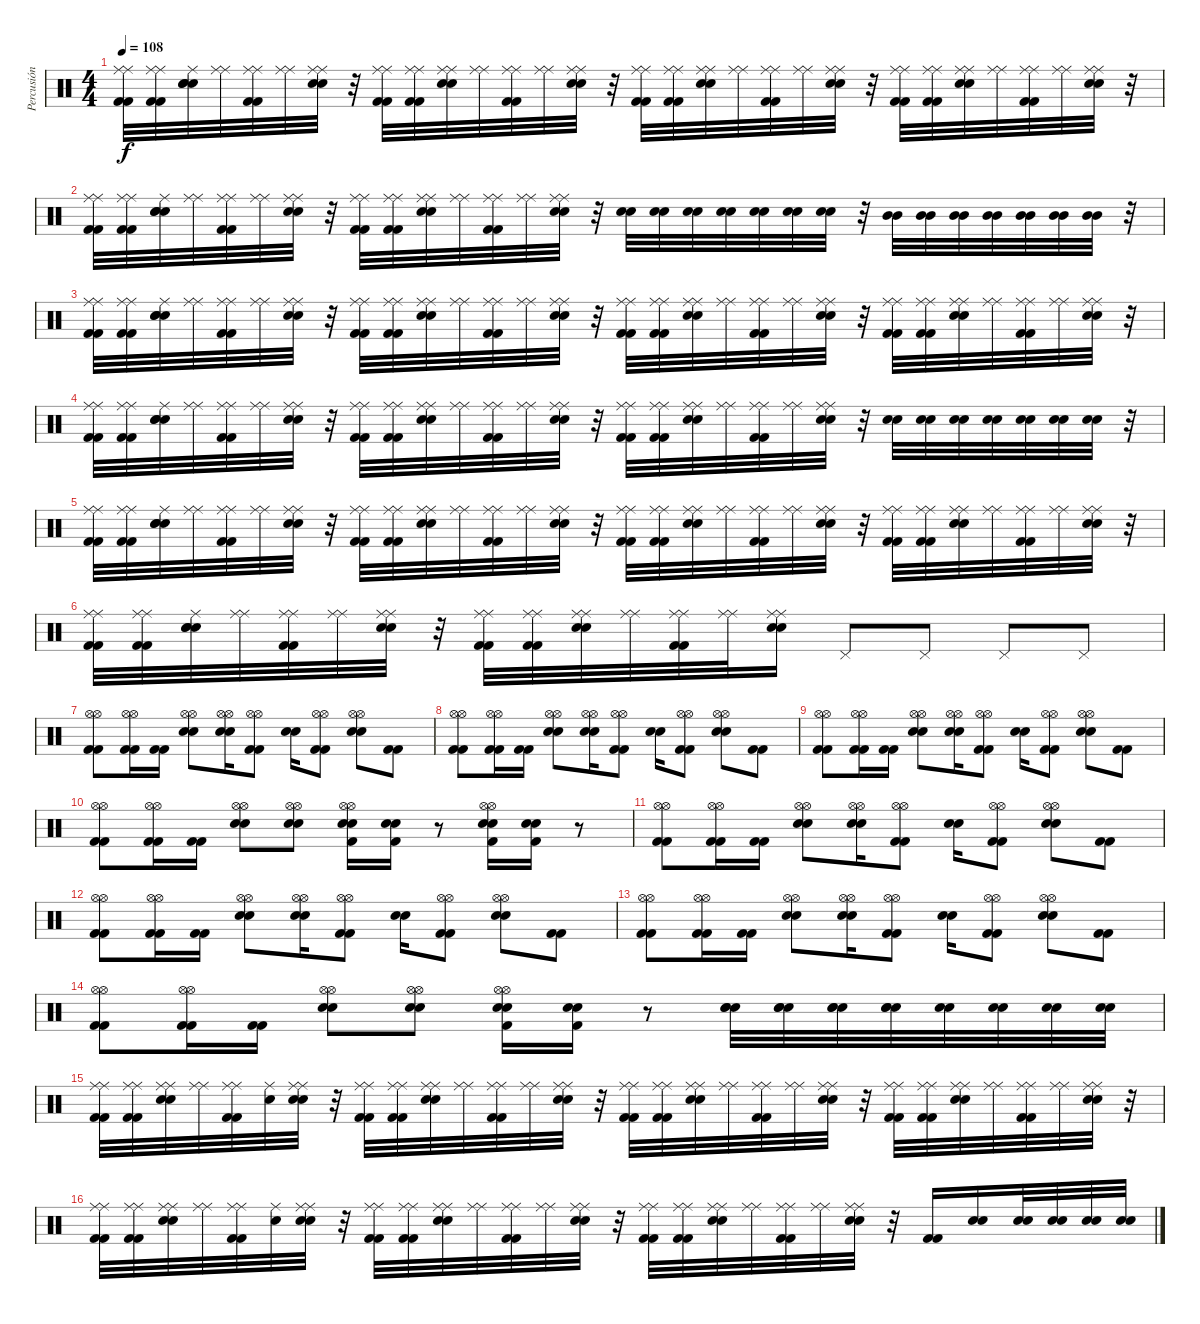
\track ("Percusión" "Percusión") {instrument percussion}
\staff {score}
\articulation defaults
\ts (4 4)
\tempo 108
\clef neutral
\ks c
("Kick (hit) 2" "Kick (hit) 2" "Ride (middle)" "Ride (middle)").32{dy f} ("Kick (hit) 2" "Kick (hit) 2" "Ride (middle)" "Ride (middle)").32 ("Snare (hit) 2" "Snare (hit) 2" "Ride (middle)" "Snare (hit)").32 ("Ride (middle)" "Ride (middle)").32 ("Kick (hit) 2" "Kick (hit) 2" "Ride (middle)" "Ride (middle)").32 ("Ride (middle)" "Ride (middle)").32 ("Snare (hit) 2" "Snare (hit) 2" "Ride (middle)" "Ride (middle)").32 r.32 ("Kick (hit) 2" "Kick (hit) 2" "Ride (middle)" "Ride (middle)").32 ("Kick (hit) 2" "Kick (hit) 2" "Ride (middle)" "Ride (middle)").32 ("Snare (hit) 2" "Snare (hit) 2" "Ride (middle)" "Ride (middle)").32 ("Ride (middle)" "Ride (middle)").32 ("Kick (hit) 2" "Kick (hit) 2" "Ride (middle)" "Ride (middle)").32 ("Ride (middle)" "Ride (middle)").32 ("Snare (hit) 2" "Snare (hit) 2" "Ride (middle)" "Ride (middle)").32 r.32 ("Kick (hit) 2" "Kick (hit) 2" "Ride (middle)" "Ride (middle)").32 ("Kick (hit) 2" "Kick (hit) 2" "Ride (middle)" "Ride (middle)").32 ("Snare (hit) 2" "Snare (hit) 2" "Ride (middle)" "Ride (middle)").32 ("Ride (middle)" "Ride (middle)").32 ("Kick (hit) 2" "Kick (hit) 2" "Ride (middle)" "Ride (middle)").32 ("Ride (middle)" "Ride (middle)").32 ("Snare (hit) 2" "Snare (hit) 2" "Ride (middle)" "Ride (middle)").32 r.32 ("Kick (hit) 2" "Kick (hit) 2" "Ride (middle)" "Ride (middle)").32 ("Kick (hit) 2" "Kick (hit) 2" "Ride (middle)" "Ride (middle)").32 ("Snare (hit) 2" "Snare (hit) 2" "Ride (middle)" "Ride (middle)").32 ("Ride (middle)" "Ride (middle)").32 ("Kick (hit) 2" "Kick (hit) 2" "Ride (middle)" "Ride (middle)").32 ("Ride (middle)" "Ride (middle)").32 ("Snare (hit) 2" "Snare (hit) 2" "Ride (middle)" "Ride (middle)").32 r.32 |
("Kick (hit) 2" "Kick (hit) 2" "Ride (middle)" "Ride (middle)").32 ("Kick (hit) 2" "Kick (hit) 2" "Ride (middle)" "Ride (middle)").32 ("Snare (hit) 2" "Snare (hit) 2" "Ride (middle)" "Snare (hit)").32 ("Ride (middle)" "Ride (middle)").32 ("Kick (hit) 2" "Kick (hit) 2" "Ride (middle)" "Ride (middle)").32 ("Ride (middle)" "Ride (middle)").32 ("Snare (hit) 2" "Snare (hit) 2" "Ride (middle)" "Ride (middle)").32 r.32 ("Kick (hit) 2" "Kick (hit) 2" "Ride (middle)" "Ride (middle)").32 ("Kick (hit) 2" "Kick (hit) 2" "Ride (middle)" "Ride (middle)").32 ("Snare (hit) 2" "Snare (hit) 2" "Ride (middle)" "Ride (middle)").32 ("Ride (middle)" "Ride (middle)").32 ("Kick (hit) 2" "Kick (hit) 2" "Ride (middle)" "Ride (middle)").32 ("Ride (middle)" "Ride (middle)").32 ("Snare (hit) 2" "Snare (hit) 2" "Ride (middle)" "Ride (middle)").32 r.32 ("Snare (hit) 2" "Snare (hit) 2").32 ("Snare (hit) 2" "Snare (hit) 2").32 ("Snare (hit) 2" "Snare (hit) 2").32 ("Snare (hit) 2" "Snare (hit) 2").32 ("Snare (hit) 2" "Snare (hit) 2").32 ("Snare (hit) 2" "Snare (hit) 2").32 ("Snare (hit) 2" "Snare (hit) 2").32 r.32 ("Mid Tom (hit)" "Mid Tom (hit)").32 ("Mid Tom (hit)" "Mid Tom (hit)").32 ("Mid Tom (hit)" "Mid Tom (hit)").32 ("Mid Tom (hit)" "Mid Tom (hit)").32 ("Mid Tom (hit)" "Mid Tom (hit)").32 ("Mid Tom (hit)" "Mid Tom (hit)").32 ("Mid Tom (hit)" "Mid Tom (hit)").32 r.32 |
("Kick (hit) 2" "Kick (hit) 2" "Ride (middle)" "Ride (middle)").32 ("Kick (hit) 2" "Kick (hit) 2" "Ride (middle)" "Ride (middle)").32 ("Snare (hit) 2" "Snare (hit) 2" "Ride (middle)" "Snare (hit)").32 ("Ride (middle)" "Ride (middle)").32 ("Kick (hit) 2" "Kick (hit) 2" "Ride (middle)" "Ride (middle)").32 ("Ride (middle)" "Ride (middle)").32 ("Snare (hit) 2" "Snare (hit) 2" "Ride (middle)" "Ride (middle)").32 r.32 ("Kick (hit) 2" "Kick (hit) 2" "Ride (middle)" "Ride (middle)").32 ("Kick (hit) 2" "Kick (hit) 2" "Ride (middle)" "Ride (middle)").32 ("Snare (hit) 2" "Snare (hit) 2" "Ride (middle)" "Ride (middle)").32 ("Ride (middle)" "Ride (middle)").32 ("Kick (hit) 2" "Kick (hit) 2" "Ride (middle)" "Ride (middle)").32 ("Ride (middle)" "Ride (middle)").32 ("Snare (hit) 2" "Snare (hit) 2" "Ride (middle)" "Ride (middle)").32 r.32 ("Kick (hit) 2" "Kick (hit) 2" "Ride (middle)" "Ride (middle)").32 ("Kick (hit) 2" "Kick (hit) 2" "Ride (middle)" "Ride (middle)").32 ("Snare (hit) 2" "Snare (hit) 2" "Ride (middle)" "Ride (middle)").32 ("Ride (middle)" "Ride (middle)").32 ("Kick (hit) 2" "Kick (hit) 2" "Ride (middle)" "Ride (middle)").32 ("Ride (middle)" "Ride (middle)").32 ("Snare (hit) 2" "Snare (hit) 2" "Ride (middle)" "Ride (middle)").32 r.32 ("Kick (hit) 2" "Kick (hit) 2" "Ride (middle)" "Ride (middle)").32 ("Kick (hit) 2" "Kick (hit) 2" "Ride (middle)" "Ride (middle)").32 ("Snare (hit) 2" "Snare (hit) 2" "Ride (middle)" "Ride (middle)").32 ("Ride (middle)" "Ride (middle)").32 ("Kick (hit) 2" "Kick (hit) 2" "Ride (middle)" "Ride (middle)").32 ("Ride (middle)" "Ride (middle)").32 ("Snare (hit) 2" "Snare (hit) 2" "Ride (middle)" "Ride (middle)").32 r.32 |
("Kick (hit) 2" "Kick (hit) 2" "Ride (middle)" "Ride (middle)").32 ("Kick (hit) 2" "Kick (hit) 2" "Ride (middle)" "Ride (middle)").32 ("Snare (hit) 2" "Snare (hit) 2" "Ride (middle)" "Snare (hit)").32 ("Ride (middle)" "Ride (middle)").32 ("Kick (hit) 2" "Kick (hit) 2" "Ride (middle)" "Ride (middle)").32 ("Ride (middle)" "Ride (middle)").32 ("Snare (hit) 2" "Snare (hit) 2" "Ride (middle)" "Ride (middle)").32 r.32 ("Kick (hit) 2" "Kick (hit) 2" "Ride (middle)" "Ride (middle)").32 ("Kick (hit) 2" "Kick (hit) 2" "Ride (middle)" "Ride (middle)").32 ("Snare (hit) 2" "Snare (hit) 2" "Ride (middle)" "Ride (middle)").32 ("Ride (middle)" "Ride (middle)").32 ("Kick (hit) 2" "Kick (hit) 2" "Ride (middle)" "Ride (middle)").32 ("Ride (middle)" "Ride (middle)").32 ("Snare (hit) 2" "Snare (hit) 2" "Ride (middle)" "Ride (middle)").32 r.32 ("Kick (hit) 2" "Kick (hit) 2" "Ride (middle)" "Ride (middle)").32 ("Kick (hit) 2" "Kick (hit) 2" "Ride (middle)" "Ride (middle)").32 ("Snare (hit) 2" "Snare (hit) 2" "Ride (middle)" "Ride (middle)").32 ("Ride (middle)" "Ride (middle)").32 ("Kick (hit) 2" "Kick (hit) 2" "Ride (middle)" "Ride (middle)").32 ("Ride (middle)" "Ride (middle)").32 ("Snare (hit) 2" "Snare (hit) 2" "Ride (middle)" "Ride (middle)").32 r.32 ("Snare (hit) 2" "Snare (hit) 2").32 ("Snare (hit) 2" "Snare (hit) 2").32 ("Snare (hit) 2" "Snare (hit) 2").32 ("Snare (hit) 2" "Snare (hit) 2").32 ("Snare (hit) 2" "Snare (hit) 2").32 ("Snare (hit) 2" "Snare (hit) 2").32 ("Snare (hit) 2" "Snare (hit) 2").32 r.32 |
("Kick (hit) 2" "Kick (hit) 2" "Ride (middle)" "Ride (middle)").32 ("Kick (hit) 2" "Kick (hit) 2" "Ride (middle)" "Ride (middle)").32 ("Snare (hit) 2" "Snare (hit) 2" "Ride (middle)" "Snare (hit)").32 ("Ride (middle)" "Ride (middle)").32 ("Kick (hit) 2" "Kick (hit) 2" "Ride (middle)" "Ride (middle)").32 ("Ride (middle)" "Ride (middle)").32 ("Snare (hit) 2" "Snare (hit) 2" "Ride (middle)" "Ride (middle)").32 r.32 ("Kick (hit) 2" "Kick (hit) 2" "Ride (middle)" "Ride (middle)").32 ("Kick (hit) 2" "Kick (hit) 2" "Ride (middle)" "Ride (middle)").32 ("Snare (hit) 2" "Snare (hit) 2" "Ride (middle)" "Ride (middle)").32 ("Ride (middle)" "Ride (middle)").32 ("Kick (hit) 2" "Kick (hit) 2" "Ride (middle)" "Ride (middle)").32 ("Ride (middle)" "Ride (middle)").32 ("Snare (hit) 2" "Snare (hit) 2" "Ride (middle)" "Ride (middle)").32 r.32 ("Kick (hit) 2" "Kick (hit) 2" "Ride (middle)" "Ride (middle)").32 ("Kick (hit) 2" "Kick (hit) 2" "Ride (middle)" "Ride (middle)").32 ("Snare (hit) 2" "Snare (hit) 2" "Ride (middle)" "Ride (middle)").32 ("Ride (middle)" "Ride (middle)").32 ("Kick (hit) 2" "Kick (hit) 2" "Ride (middle)" "Ride (middle)").32 ("Ride (middle)" "Ride (middle)").32 ("Snare (hit) 2" "Snare (hit) 2" "Ride (middle)" "Ride (middle)").32 r.32 ("Kick (hit) 2" "Kick (hit) 2" "Ride (middle)" "Ride (middle)").32 ("Kick (hit) 2" "Kick (hit) 2" "Ride (middle)" "Ride (middle)").32 ("Snare (hit) 2" "Snare (hit) 2" "Ride (middle)" "Ride (middle)").32 ("Ride (middle)" "Ride (middle)").32 ("Kick (hit) 2" "Kick (hit) 2" "Ride (middle)" "Ride (middle)").32 ("Ride (middle)" "Ride (middle)").32 ("Snare (hit) 2" "Snare (hit) 2" "Ride (middle)" "Ride (middle)").32 r.32 |
("Kick (hit) 2" "Kick (hit) 2" "Ride (middle)" "Ride (middle)").32 ("Kick (hit) 2" "Kick (hit) 2" "Ride (middle)" "Ride (middle)").32 ("Snare (hit) 2" "Snare (hit) 2" "Ride (middle)" "Snare (hit)").32 ("Ride (middle)" "Ride (middle)").32 ("Kick (hit) 2" "Kick (hit) 2" "Ride (middle)" "Ride (middle)").32 ("Ride (middle)" "Ride (middle)").32 ("Snare (hit) 2" "Snare (hit) 2" "Ride (middle)" "Ride (middle)").32 r.32 ("Kick (hit) 2" "Kick (hit) 2" "Ride (middle)" "Ride (middle)").32 ("Kick (hit) 2" "Kick (hit) 2" "Ride (middle)" "Ride (middle)").32 ("Snare (hit) 2" "Snare (hit) 2" "Ride (middle)" "Ride (middle)").32 ("Ride (middle)" "Ride (middle)").32 ("Kick (hit) 2" "Kick (hit) 2" "Ride (middle)" "Ride (middle)").32 ("Ride (middle)" "Ride (middle)").32 ("Snare (hit) 2" "Snare (hit) 2" "Ride (middle)" "Ride (middle)").16 "Pedal Hi-Hat (hit)".8 "Pedal Hi-Hat (hit)".8 "Pedal Hi-Hat (hit)".8 "Pedal Hi-Hat (hit)".8 |
("Kick (hit) 2" "Kick (hit) 2" "Hi-Hat (open)" "Hi-Hat (open)").8 ("Kick (hit) 2" "Kick (hit) 2" "Hi-Hat (open)" "Hi-Hat (open)").16 ("Kick (hit) 2" "Kick (hit) 2").16 ("Snare (hit) 2" "Snare (hit) 2" "Hi-Hat (open)" "Hi-Hat (open)").8 ("Snare (hit) 2" "Snare (hit) 2" "Hi-Hat (open)" "Hi-Hat (open)").16 ("Kick (hit) 2" "Kick (hit) 2" "Hi-Hat (open)" "Hi-Hat (open)").8 ("Snare (hit) 2" "Snare (hit) 2").16 ("Kick (hit) 2" "Kick (hit) 2" "Hi-Hat (open)" "Hi-Hat (open)").8 ("Snare (hit) 2" "Snare (hit) 2" "Hi-Hat (open)" "Hi-Hat (open)").8 ("Kick (hit) 2" "Kick (hit) 2").8 |
("Kick (hit) 2" "Kick (hit) 2" "Hi-Hat (open)" "Hi-Hat (open)").8 ("Kick (hit) 2" "Kick (hit) 2" "Hi-Hat (open)" "Hi-Hat (open)").16 ("Kick (hit) 2" "Kick (hit) 2").16 ("Snare (hit) 2" "Snare (hit) 2" "Hi-Hat (open)" "Hi-Hat (open)").8 ("Snare (hit) 2" "Snare (hit) 2" "Hi-Hat (open)" "Hi-Hat (open)").16 ("Kick (hit) 2" "Kick (hit) 2" "Hi-Hat (open)" "Hi-Hat (open)").8 ("Snare (hit) 2" "Snare (hit) 2").16 ("Kick (hit) 2" "Kick (hit) 2" "Hi-Hat (open)" "Hi-Hat (open)").8 ("Snare (hit) 2" "Snare (hit) 2" "Hi-Hat (open)" "Hi-Hat (open)").8 ("Kick (hit) 2" "Kick (hit) 2").8 |
("Kick (hit) 2" "Kick (hit) 2" "Hi-Hat (open)" "Hi-Hat (open)").8 ("Kick (hit) 2" "Kick (hit) 2" "Hi-Hat (open)" "Hi-Hat (open)").16 ("Kick (hit) 2" "Kick (hit) 2").16 ("Snare (hit) 2" "Snare (hit) 2" "Hi-Hat (open)" "Hi-Hat (open)").8 ("Snare (hit) 2" "Snare (hit) 2" "Hi-Hat (open)" "Hi-Hat (open)").16 ("Kick (hit) 2" "Kick (hit) 2" "Hi-Hat (open)" "Hi-Hat (open)").8 ("Snare (hit) 2" "Snare (hit) 2").16 ("Kick (hit) 2" "Kick (hit) 2" "Hi-Hat (open)" "Hi-Hat (open)").8 ("Snare (hit) 2" "Snare (hit) 2" "Hi-Hat (open)" "Hi-Hat (open)").8 ("Kick (hit) 2" "Kick (hit) 2").8 |
("Kick (hit) 2" "Kick (hit) 2" "Hi-Hat (open)" "Hi-Hat (open)").8 ("Kick (hit) 2" "Kick (hit) 2" "Hi-Hat (open)" "Hi-Hat (open)").16 ("Kick (hit) 2" "Kick (hit) 2").16 ("Snare (hit) 2" "Snare (hit) 2" "Hi-Hat (open)" "Hi-Hat (open)").8 ("Snare (hit) 2" "Snare (hit) 2" "Hi-Hat (open)" "Hi-Hat (open)").8 ("Snare (hit) 2" "Snare (hit) 2" "Kick (hit) 2" "Hi-Hat (open)" "Hi-Hat (open)").16 ("Snare (hit) 2" "Snare (hit) 2" "Kick (hit) 2").16 r.8 ("Snare (hit) 2" "Snare (hit) 2" "Kick (hit) 2" "Hi-Hat (open)" "Hi-Hat (open)").16 ("Snare (hit) 2" "Snare (hit) 2" "Kick (hit) 2").16 r.8 |
("Kick (hit) 2" "Kick (hit) 2" "Hi-Hat (open)" "Hi-Hat (open)").8 ("Kick (hit) 2" "Kick (hit) 2" "Hi-Hat (open)" "Hi-Hat (open)").16 ("Kick (hit) 2" "Kick (hit) 2").16 ("Snare (hit) 2" "Snare (hit) 2" "Hi-Hat (open)" "Hi-Hat (open)").8 ("Snare (hit) 2" "Snare (hit) 2" "Hi-Hat (open)" "Hi-Hat (open)").16 ("Kick (hit) 2" "Kick (hit) 2" "Hi-Hat (open)" "Hi-Hat (open)").8 ("Snare (hit) 2" "Snare (hit) 2").16 ("Kick (hit) 2" "Kick (hit) 2" "Hi-Hat (open)" "Hi-Hat (open)").8 ("Snare (hit) 2" "Snare (hit) 2" "Hi-Hat (open)" "Hi-Hat (open)").8 ("Kick (hit) 2" "Kick (hit) 2").8 |
("Kick (hit) 2" "Kick (hit) 2" "Hi-Hat (open)" "Hi-Hat (open)").8 ("Kick (hit) 2" "Kick (hit) 2" "Hi-Hat (open)" "Hi-Hat (open)").16 ("Kick (hit) 2" "Kick (hit) 2").16 ("Snare (hit) 2" "Snare (hit) 2" "Hi-Hat (open)" "Hi-Hat (open)").8 ("Snare (hit) 2" "Snare (hit) 2" "Hi-Hat (open)" "Hi-Hat (open)").16 ("Kick (hit) 2" "Kick (hit) 2" "Hi-Hat (open)" "Hi-Hat (open)").8 ("Snare (hit) 2" "Snare (hit) 2").16 ("Kick (hit) 2" "Kick (hit) 2" "Hi-Hat (open)" "Hi-Hat (open)").8 ("Snare (hit) 2" "Snare (hit) 2" "Hi-Hat (open)" "Hi-Hat (open)").8 ("Kick (hit) 2" "Kick (hit) 2").8 |
("Kick (hit) 2" "Kick (hit) 2" "Hi-Hat (open)" "Hi-Hat (open)").8 ("Kick (hit) 2" "Kick (hit) 2" "Hi-Hat (open)" "Hi-Hat (open)").16 ("Kick (hit) 2" "Kick (hit) 2").16 ("Snare (hit) 2" "Snare (hit) 2" "Hi-Hat (open)" "Hi-Hat (open)").8 ("Snare (hit) 2" "Snare (hit) 2" "Hi-Hat (open)" "Hi-Hat (open)").16 ("Kick (hit) 2" "Kick (hit) 2" "Hi-Hat (open)" "Hi-Hat (open)").8 ("Snare (hit) 2" "Snare (hit) 2").16 ("Kick (hit) 2" "Kick (hit) 2" "Hi-Hat (open)" "Hi-Hat (open)").8 ("Snare (hit) 2" "Snare (hit) 2" "Hi-Hat (open)" "Hi-Hat (open)").8 ("Kick (hit) 2" "Kick (hit) 2").8 |
("Kick (hit) 2" "Kick (hit) 2" "Hi-Hat (open)" "Hi-Hat (open)").8 ("Kick (hit) 2" "Kick (hit) 2" "Hi-Hat (open)" "Hi-Hat (open)").16 ("Kick (hit) 2" "Kick (hit) 2").16 ("Snare (hit) 2" "Snare (hit) 2" "Hi-Hat (open)" "Hi-Hat (open)").8 ("Snare (hit) 2" "Snare (hit) 2" "Hi-Hat (open)" "Hi-Hat (open)").8 ("Snare (hit) 2" "Snare (hit) 2" "Kick (hit) 2" "Hi-Hat (open)" "Hi-Hat (open)").16 ("Snare (hit) 2" "Snare (hit) 2" "Kick (hit) 2").16 r.8 ("Snare (hit) 2" "Snare (hit) 2" "Snare (hit) 2").32 ("Snare (hit) 2" "Snare (hit) 2" "Snare (hit) 2").32 ("Snare (hit) 2" "Snare (hit) 2" "Snare (hit) 2").32 ("Snare (hit) 2" "Snare (hit) 2" "Snare (hit) 2").32 ("Snare (hit) 2" "Snare (hit) 2").32 ("Snare (hit) 2" "Snare (hit) 2").32 ("Snare (hit) 2" "Snare (hit) 2").32 ("Snare (hit) 2" "Snare (hit) 2").32 |
("Kick (hit) 2" "Kick (hit) 2" "Ride (middle)" "Ride (middle)").32 ("Kick (hit) 2" "Kick (hit) 2" "Ride (middle)" "Ride (middle)").32 ("Snare (hit) 2" "Snare (hit) 2" "Ride (middle)" "Ride (middle)").32 ("Ride (middle)" "Ride (middle)").32 ("Kick (hit) 2" "Kick (hit) 2" "Ride (middle)" "Ride (middle)").32 ("Ride (middle)" "Snare (hit)").32 ("Snare (hit) 2" "Snare (hit) 2" "Ride (middle)" "Ride (middle)").32 r.32 ("Kick (hit) 2" "Kick (hit) 2" "Ride (middle)" "Ride (middle)").32 ("Kick (hit) 2" "Kick (hit) 2" "Ride (middle)" "Ride (middle)").32 ("Snare (hit) 2" "Snare (hit) 2" "Ride (middle)" "Ride (middle)").32 ("Ride (middle)" "Ride (middle)").32 ("Kick (hit) 2" "Kick (hit) 2" "Ride (middle)" "Ride (middle)").32 ("Ride (middle)" "Ride (middle)").32 ("Snare (hit) 2" "Snare (hit) 2" "Ride (middle)" "Ride (middle)").32 r.32 ("Kick (hit) 2" "Kick (hit) 2" "Ride (middle)" "Ride (middle)").32 ("Kick (hit) 2" "Kick (hit) 2" "Ride (middle)" "Ride (middle)").32 ("Snare (hit) 2" "Snare (hit) 2" "Ride (middle)" "Ride (middle)").32 ("Ride (middle)" "Ride (middle)").32 ("Kick (hit) 2" "Kick (hit) 2" "Ride (middle)" "Ride (middle)").32 ("Ride (middle)" "Ride (middle)").32 ("Snare (hit) 2" "Snare (hit) 2" "Ride (middle)" "Ride (middle)").32 r.32 ("Kick (hit) 2" "Kick (hit) 2" "Ride (middle)" "Ride (middle)").32 ("Kick (hit) 2" "Kick (hit) 2" "Ride (middle)" "Ride (middle)").32 ("Snare (hit) 2" "Snare (hit) 2" "Ride (middle)" "Ride (middle)").32 ("Ride (middle)" "Ride (middle)").32 ("Kick (hit) 2" "Kick (hit) 2" "Ride (middle)" "Ride (middle)").32 ("Ride (middle)" "Ride (middle)").32 ("Snare (hit) 2" "Snare (hit) 2" "Ride (middle)" "Ride (middle)").32 r.32 |
("Kick (hit) 2" "Kick (hit) 2" "Ride (middle)" "Ride (middle)").32 ("Kick (hit) 2" "Kick (hit) 2" "Ride (middle)" "Ride (middle)").32 ("Snare (hit) 2" "Snare (hit) 2" "Ride (middle)" "Ride (middle)").32 ("Ride (middle)" "Ride (middle)").32 ("Kick (hit) 2" "Kick (hit) 2" "Ride (middle)" "Ride (middle)").32 ("Ride (middle)" "Snare (hit)").32 ("Snare (hit) 2" "Snare (hit) 2" "Ride (middle)" "Ride (middle)").32 r.32 ("Kick (hit) 2" "Kick (hit) 2" "Ride (middle)" "Ride (middle)").32 ("Kick (hit) 2" "Kick (hit) 2" "Ride (middle)" "Ride (middle)").32 ("Snare (hit) 2" "Snare (hit) 2" "Ride (middle)" "Ride (middle)").32 ("Ride (middle)" "Ride (middle)").32 ("Kick (hit) 2" "Kick (hit) 2" "Ride (middle)" "Ride (middle)").32 ("Ride (middle)" "Ride (middle)").32 ("Snare (hit) 2" "Snare (hit) 2" "Ride (middle)" "Ride (middle)").32 r.32 ("Kick (hit) 2" "Kick (hit) 2" "Ride (middle)" "Ride (middle)").32 ("Kick (hit) 2" "Kick (hit) 2" "Ride (middle)" "Ride (middle)").32 ("Snare (hit) 2" "Snare (hit) 2" "Ride (middle)" "Ride (middle)").32 ("Ride (middle)" "Ride (middle)").32 ("Kick (hit) 2" "Kick (hit) 2" "Ride (middle)" "Ride (middle)").32 ("Ride (middle)" "Ride (middle)").32 ("Snare (hit) 2" "Snare (hit) 2" "Ride (middle)" "Ride (middle)").32 r.32 ("Kick (hit) 2" "Kick (hit) 2").16 ("Snare (hit) 2" "Snare (hit) 2").16 ("Snare (hit) 2" "Snare (hit) 2").32 ("Snare (hit) 2" "Snare (hit) 2").32 ("Snare (hit) 2" "Snare (hit) 2").32 ("Snare (hit) 2" "Snare (hit) 2").32
